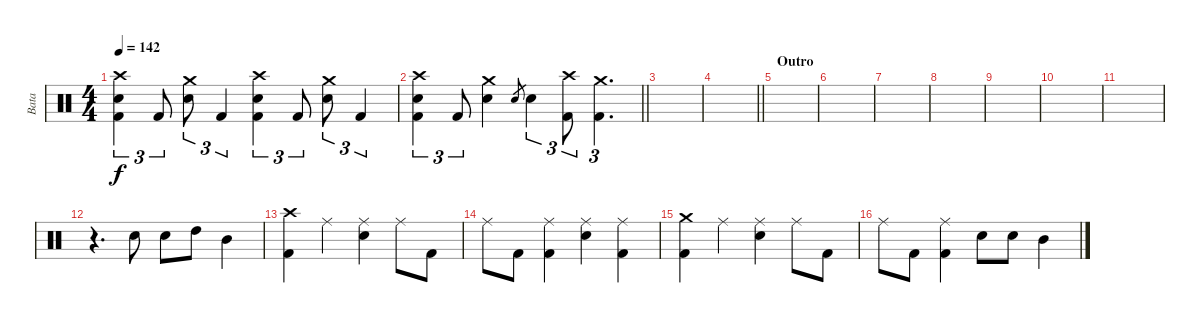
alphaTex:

\track ("Bata" "Bata") {instrument percussion}
\staff {score}
\articulation defaults
\ts (4 4)
\tempo 142
\clef neutral
\ks c
("Crash high (hit)" "Electric Snare (hit)" "Kick (hit) 2").4{tu (3 2) dy f} "Kick (hit) 2".8{tu (3 2)} ("Crash medium (hit)" "Electric Snare (hit)").8{tu (3 2)} "Kick (hit) 2".4{tu (3 2)} ("Crash high (hit)" "Electric Snare (hit)" "Kick (hit) 2").4{tu (3 2)} "Kick (hit) 2".8{tu (3 2)} ("Crash medium (hit)" "Electric Snare (hit)").8{tu (3 2)} "Kick (hit) 2".4{tu (3 2)} |
\barLineRight lightlight
("Crash high (hit)" "Electric Snare (hit)" "Kick (hit) 2").4{tu (3 2)} "Kick (hit) 2".8{tu (3 2)} ("Crash medium (hit)" "Electric Snare (hit)").4 "Electric Snare (hit)".8{gr} "Electric Snare (hit)".4{tu (3 2)} ("Crash high (hit)" "Kick (hit) 2").8{tu (3 2)} ("Crash medium (hit)" "Kick (hit) 2").4{d tu (3 2)} |
|
\barLineRight lightlight
|
\section ("" "Outro")
|
|
|
|
|
|
|
r.4{d} "Electric Snare (hit)".8 "Electric Snare (hit)".8 "High Tom (hit)".8 "Mid Tom (hit)".4 |
("Crash high (hit)" "Kick (hit) 2").4 "Ride (middle)".4 ("Ride (middle)" "Electric Snare (hit)").4 "Ride (middle)".8 "Kick (hit) 2".8 |
"Ride (middle)".8 "Kick (hit) 2".8 ("Ride (middle)" "Kick (hit) 2").4 ("Ride (middle)" "Electric Snare (hit)").4 ("Ride (middle)" "Kick (hit) 2").4 |
("Crash medium (hit)" "Kick (hit) 2").4 "Ride (middle)".4 ("Ride (middle)" "Electric Snare (hit)").4 "Ride (middle)".8 "Kick (hit) 2".8 |
"Ride (middle)".8 "Kick (hit) 2".8 ("Ride (middle)" "Kick (hit) 2").4 "Electric Snare (hit)".8 "Electric Snare (hit)".8 "Mid Tom (hit)".4
